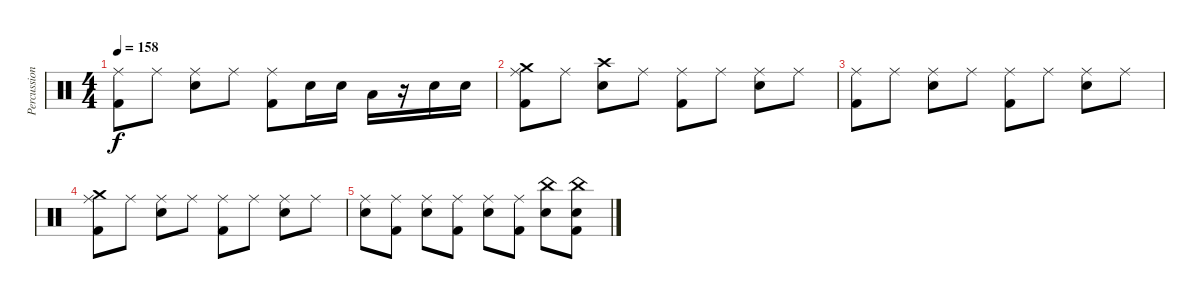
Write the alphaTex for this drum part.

\track ("Percussion" "Percussion") {instrument percussion}
\staff {score}
\articulation defaults
\ts (4 4)
\tempo 158
\clef neutral
\ks c
("Ride (middle)" "Kick (hit) 2").8{dy f} "Ride (middle)".8 ("Ride (middle)" "Electric Snare (hit)").8 "Ride (middle)".8 ("Ride (middle)" "Kick (hit) 2").8 "Electric Snare (hit)".16 "Electric Snare (hit)".16 "Low Tom (hit)".16 r.16 "Electric Snare (hit)".16 "Electric Snare (hit)".16 |
("Ride (middle)" "Crash medium (hit)" "Kick (hit) 2").8 "Ride (middle)".8 ("Crash high (hit)" "Electric Snare (hit)").8 "Ride (middle)".8 ("Ride (middle)" "Kick (hit) 2").8 "Ride (middle)".8 ("Ride (middle)" "Electric Snare (hit)").8 "Ride (middle)".8 |
("Ride (middle)" "Kick (hit) 2").8 "Ride (middle)".8 ("Ride (middle)" "Electric Snare (hit)").8 "Ride (middle)".8 ("Ride (middle)" "Kick (hit) 2").8 "Ride (middle)".8 ("Ride (middle)" "Electric Snare (hit)").8 "Ride (middle)".8 |
("Ride (middle)" "Crash medium (hit)" "Kick (hit) 2").8 "Ride (middle)".8 ("Ride (middle)" "Electric Snare (hit)").8 "Ride (middle)".8 ("Ride (middle)" "Kick (hit) 2").8 "Ride (middle)".8 ("Ride (middle)" "Electric Snare (hit)").8 "Ride (middle)".8 |
("Ride (middle)" "Electric Snare (hit)").8 ("Ride (middle)" "Kick (hit) 2").8 ("Ride (middle)" "Electric Snare (hit)").8 ("Ride (middle)" "Kick (hit) 2").8 ("Ride (middle)" "Electric Snare (hit)").8 ("Ride (middle)" "Kick (hit) 2").8 ("China (hit)" "Electric Snare (hit)").8 ("China (hit)" "Electric Snare (hit)" "Kick (hit) 2").8
